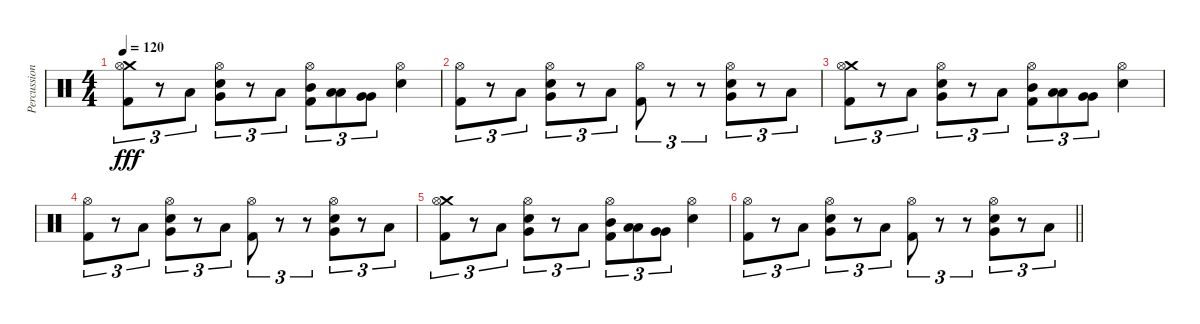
\track ("Percussion" "Percussion") {instrument percussion}
\staff {score}
\articulation defaults
\ts (4 4)
\tempo 120
\clef neutral
\ks c
("Crash medium (hit)" "Hi-Hat (open)" "Kick (hit) 2").8{tu (3 2) dy fff} r.8{tu (3 2)} "Low Tom (hit)".8{tu (3 2)} ("Very Low Tom (hit)" "Hi-Hat (open)" "Snare (hit) 2").8{tu (3 2)} r.8{tu (3 2)} "Low Tom (hit)".8{tu (3 2)} ("Mid Tom (hit)" "Hi-Hat (open)" "Kick (hit) 2").8{tu (3 2)} ("Low Tom (hit)" "Low Tom (hit)").8{tu (3 2)} ("Very Low Tom (hit)" "Very Low Tom (hit)").8{tu (3 2)} ("Hi-Hat (open)" "Snare (hit) 2").4 |
("Hi-Hat (open)" "Kick (hit) 2").8{tu (3 2)} r.8{tu (3 2)} "Low Tom (hit)".8{tu (3 2)} ("Very Low Tom (hit)" "Hi-Hat (open)" "Snare (hit) 2").8{tu (3 2)} r.8{tu (3 2)} "Low Tom (hit)".8{tu (3 2)} ("Hi-Hat (open)" "Kick (hit) 2").8{tu (3 2)} r.8{tu (3 2)} r.8{tu (3 2)} ("Very Low Tom (hit)" "Hi-Hat (open)" "Snare (hit) 2").8{tu (3 2)} r.8{tu (3 2)} "Low Tom (hit)".8{tu (3 2)} |
("Crash medium (hit)" "Hi-Hat (open)" "Kick (hit) 2").8{tu (3 2)} r.8{tu (3 2)} "Low Tom (hit)".8{tu (3 2)} ("Very Low Tom (hit)" "Hi-Hat (open)" "Snare (hit) 2").8{tu (3 2)} r.8{tu (3 2)} "Low Tom (hit)".8{tu (3 2)} ("Mid Tom (hit)" "Hi-Hat (open)" "Kick (hit) 2").8{tu (3 2)} ("Low Tom (hit)" "Low Tom (hit)").8{tu (3 2)} ("Very Low Tom (hit)" "Very Low Tom (hit)").8{tu (3 2)} ("Hi-Hat (open)" "Snare (hit) 2").4 |
("Hi-Hat (open)" "Kick (hit) 2").8{tu (3 2)} r.8{tu (3 2)} "Low Tom (hit)".8{tu (3 2)} ("Very Low Tom (hit)" "Hi-Hat (open)" "Snare (hit) 2").8{tu (3 2)} r.8{tu (3 2)} "Low Tom (hit)".8{tu (3 2)} ("Hi-Hat (open)" "Kick (hit) 2").8{tu (3 2)} r.8{tu (3 2)} r.8{tu (3 2)} ("Very Low Tom (hit)" "Hi-Hat (open)" "Snare (hit) 2").8{tu (3 2)} r.8{tu (3 2)} "Low Tom (hit)".8{tu (3 2)} |
("Crash medium (hit)" "Hi-Hat (open)" "Kick (hit) 2").8{tu (3 2)} r.8{tu (3 2)} "Low Tom (hit)".8{tu (3 2)} ("Very Low Tom (hit)" "Hi-Hat (open)" "Snare (hit) 2").8{tu (3 2)} r.8{tu (3 2)} "Low Tom (hit)".8{tu (3 2)} ("Mid Tom (hit)" "Hi-Hat (open)" "Kick (hit) 2").8{tu (3 2)} ("Low Tom (hit)" "Low Tom (hit)").8{tu (3 2)} ("Very Low Tom (hit)" "Very Low Tom (hit)").8{tu (3 2)} ("Hi-Hat (open)" "Snare (hit) 2").4 |
\barLineRight lightlight
("Hi-Hat (open)" "Kick (hit) 2").8{tu (3 2)} r.8{tu (3 2)} "Low Tom (hit)".8{tu (3 2)} ("Very Low Tom (hit)" "Hi-Hat (open)" "Snare (hit) 2").8{tu (3 2)} r.8{tu (3 2)} "Low Tom (hit)".8{tu (3 2)} ("Hi-Hat (open)" "Kick (hit) 2").8{tu (3 2)} r.8{tu (3 2)} r.8{tu (3 2)} ("Very Low Tom (hit)" "Hi-Hat (open)" "Snare (hit) 2").8{tu (3 2)} r.8{tu (3 2)} "Low Tom (hit)".8{tu (3 2)}
